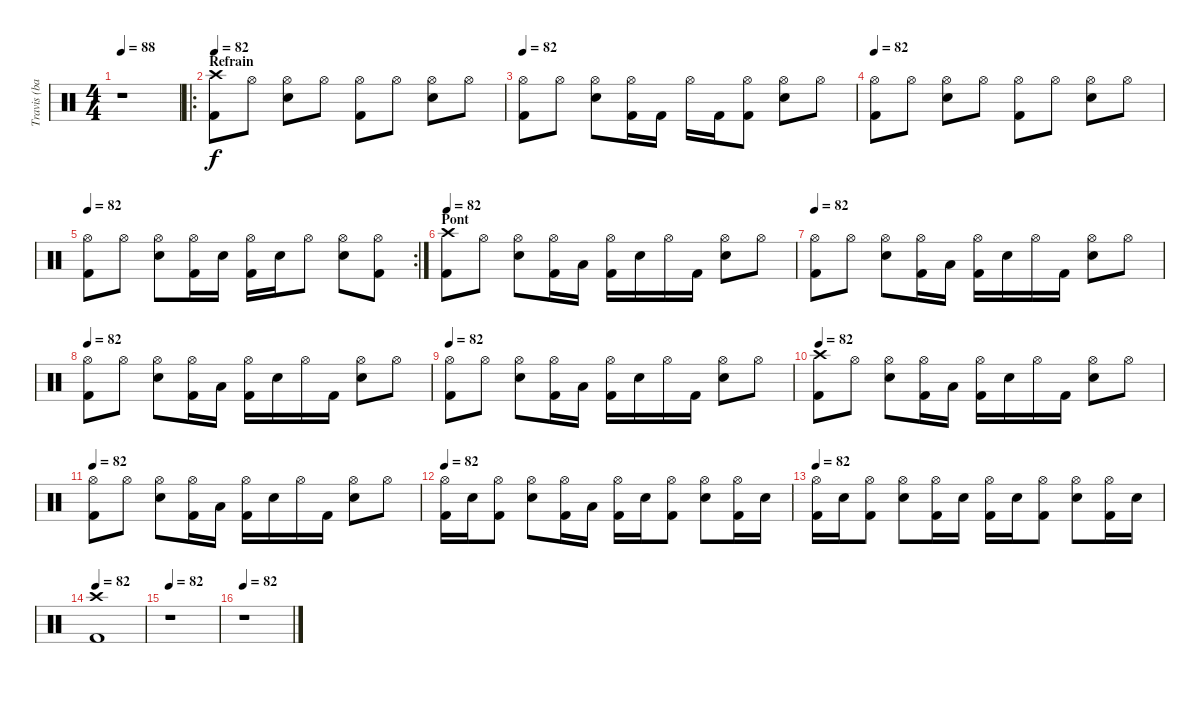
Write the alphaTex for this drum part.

\track ("Travis (batterie)" "Travis (ba") {instrument percussion}
\staff {score}
\articulation defaults
\ts (4 4)
\tempo 88
\clef neutral
\ks c
r.1{dy f} |
\ro
\section ("" "Refrain")
\tempo 82
("Crash high (hit)" "Kick (hit) 2").8 "Hi-Hat (open)".8 ("Hi-Hat (open)" "Electric Snare (hit)").8 "Hi-Hat (open)".8 ("Hi-Hat (open)" "Kick (hit) 2").8 "Hi-Hat (open)".8 ("Hi-Hat (open)" "Electric Snare (hit)").8 "Hi-Hat (open)".8 |
\tempo 82
("Hi-Hat (open)" "Kick (hit) 2").8 "Hi-Hat (open)".8 ("Hi-Hat (open)" "Electric Snare (hit)").8 ("Hi-Hat (open)" "Kick (hit) 2").16 "Kick (hit) 2".16 "Hi-Hat (open)".16 "Kick (hit) 2".16 ("Hi-Hat (open)" "Kick (hit) 2").8 ("Hi-Hat (open)" "Electric Snare (hit)").8 "Hi-Hat (open)".8 |
\tempo 82
("Hi-Hat (open)" "Kick (hit) 2").8 "Hi-Hat (open)".8 ("Hi-Hat (open)" "Electric Snare (hit)").8 "Hi-Hat (open)".8 ("Hi-Hat (open)" "Kick (hit) 2").8 "Hi-Hat (open)".8 ("Hi-Hat (open)" "Electric Snare (hit)").8 "Hi-Hat (open)".8 |
\rc 2
\tempo 82
("Hi-Hat (open)" "Kick (hit) 2").8 "Hi-Hat (open)".8 ("Hi-Hat (open)" "Electric Snare (hit)").8 ("Hi-Hat (open)" "Kick (hit) 2").16 "Electric Snare (hit)".16 ("Hi-Hat (open)" "Kick (hit) 2").16 "Electric Snare (hit)".16 "Hi-Hat (open)".8 ("Hi-Hat (open)" "Electric Snare (hit)").8 ("Hi-Hat (open)" "Kick (hit) 2").8 |
\section ("" "Pont")
\tempo 82
("Crash high (hit)" "Kick (hit) 2").8 "Hi-Hat (open)".8 ("Hi-Hat (open)" "Electric Snare (hit)").8 ("Hi-Hat (open)" "Kick (hit) 2").16 "Low Tom (hit)".16 ("Hi-Hat (open)" "Kick (hit) 2").16 "Electric Snare (hit)".16 "Hi-Hat (open)".16 "Kick (hit) 2".16 ("Hi-Hat (open)" "Electric Snare (hit)").8 "Hi-Hat (open)".8 |
\tempo 82
("Hi-Hat (open)" "Kick (hit) 2").8 "Hi-Hat (open)".8 ("Hi-Hat (open)" "Electric Snare (hit)").8 ("Hi-Hat (open)" "Kick (hit) 2").16 "Low Tom (hit)".16 ("Hi-Hat (open)" "Kick (hit) 2").16 "Electric Snare (hit)".16 "Hi-Hat (open)".16 "Kick (hit) 2".16 ("Hi-Hat (open)" "Electric Snare (hit)").8 "Hi-Hat (open)".8 |
\tempo 82
("Hi-Hat (open)" "Kick (hit) 2").8 "Hi-Hat (open)".8 ("Hi-Hat (open)" "Electric Snare (hit)").8 ("Hi-Hat (open)" "Kick (hit) 2").16 "Low Tom (hit)".16 ("Hi-Hat (open)" "Kick (hit) 2").16 "Electric Snare (hit)".16 "Hi-Hat (open)".16 "Kick (hit) 2".16 ("Hi-Hat (open)" "Electric Snare (hit)").8 "Hi-Hat (open)".8 |
\tempo 82
("Hi-Hat (open)" "Kick (hit) 2").8 "Hi-Hat (open)".8 ("Hi-Hat (open)" "Electric Snare (hit)").8 ("Hi-Hat (open)" "Kick (hit) 2").16 "Low Tom (hit)".16 ("Hi-Hat (open)" "Kick (hit) 2").16 "Electric Snare (hit)".16 "Hi-Hat (open)".16 "Kick (hit) 2".16 ("Hi-Hat (open)" "Electric Snare (hit)").8 "Hi-Hat (open)".8 |
\tempo 82
("Crash high (hit)" "Kick (hit) 2").8 "Hi-Hat (open)".8 ("Hi-Hat (open)" "Electric Snare (hit)").8 ("Hi-Hat (open)" "Kick (hit) 2").16 "Low Tom (hit)".16 ("Hi-Hat (open)" "Kick (hit) 2").16 "Electric Snare (hit)".16 "Hi-Hat (open)".16 "Kick (hit) 2".16 ("Hi-Hat (open)" "Electric Snare (hit)").8 "Hi-Hat (open)".8 |
\tempo 82
("Hi-Hat (open)" "Kick (hit) 2").8 "Hi-Hat (open)".8 ("Hi-Hat (open)" "Electric Snare (hit)").8 ("Hi-Hat (open)" "Kick (hit) 2").16 "Low Tom (hit)".16 ("Hi-Hat (open)" "Kick (hit) 2").16 "Electric Snare (hit)".16 "Hi-Hat (open)".16 "Kick (hit) 2".16 ("Hi-Hat (open)" "Electric Snare (hit)").8 "Hi-Hat (open)".8 |
\tempo 82
("Hi-Hat (open)" "Kick (hit) 2").16 "Electric Snare (hit)".16 ("Hi-Hat (open)" "Kick (hit) 2").8 ("Hi-Hat (open)" "Electric Snare (hit)").8 ("Hi-Hat (open)" "Kick (hit) 2").16 "Low Tom (hit)".16 ("Hi-Hat (open)" "Kick (hit) 2").16 "Electric Snare (hit)".16 ("Hi-Hat (open)" "Kick (hit) 2").8 ("Hi-Hat (open)" "Electric Snare (hit)").8 ("Hi-Hat (open)" "Kick (hit) 2").16 "Electric Snare (hit)".16 |
\tempo 82
("Hi-Hat (open)" "Kick (hit) 2").16 "Electric Snare (hit)".16 ("Hi-Hat (open)" "Kick (hit) 2").8 ("Hi-Hat (open)" "Electric Snare (hit)").8 ("Hi-Hat (open)" "Kick (hit) 2").16 "Electric Snare (hit)".16 ("Hi-Hat (open)" "Kick (hit) 2").16 "Electric Snare (hit)".16 ("Hi-Hat (open)" "Kick (hit) 2").8 ("Hi-Hat (open)" "Electric Snare (hit)").8 ("Hi-Hat (open)" "Kick (hit) 2").16 "Electric Snare (hit)".16 |
\tempo 82
("Crash high (hit)" "Kick (hit) 2").1 |
\tempo 82
r.1 |
\tempo 82
r.1
